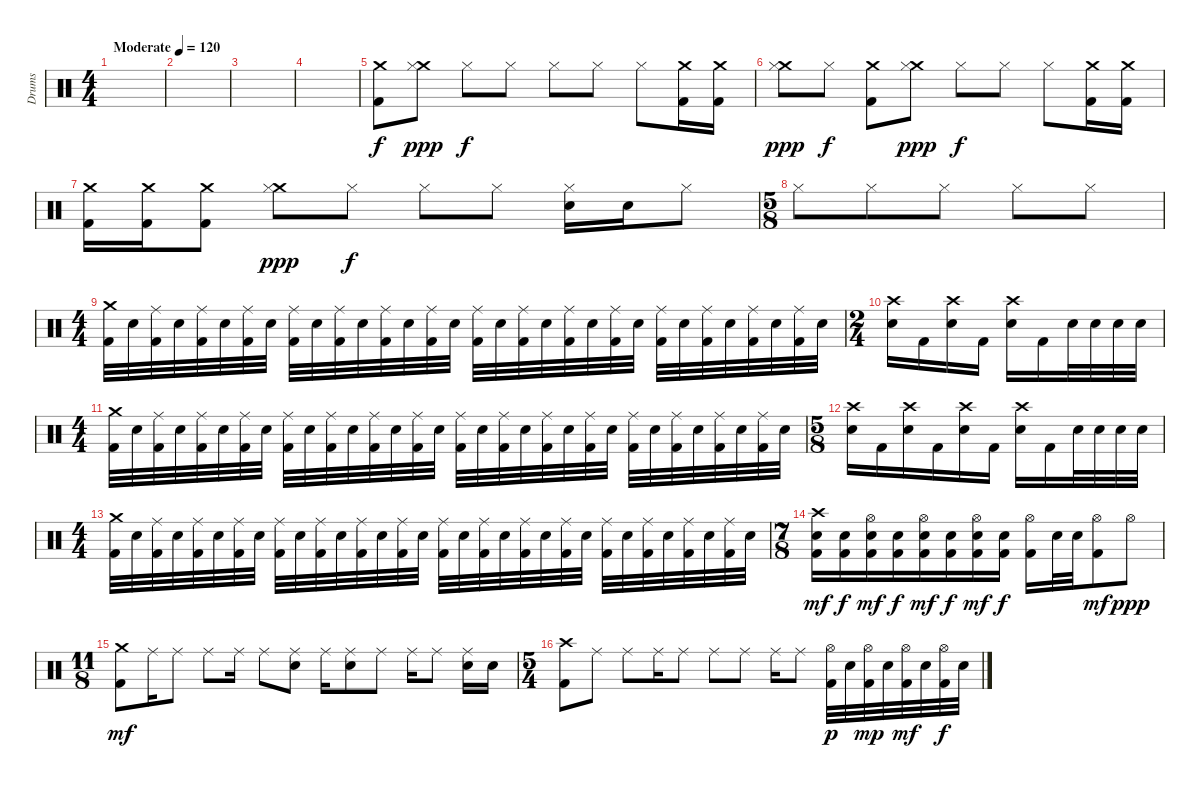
\track ("Drums" "Drums") {instrument percussion}
\staff {score}
\articulation defaults
\ts (4 4)
\tempo (120 "Moderate")
\clef neutral
\ks c
|
|
|
|
("Crash medium (hit)" "Kick (hit) 2").8 ("Crash medium (hit)" "Hi-Hat (closed)").8{dy ppp} "Hi-Hat (closed)".8{dy f} "Hi-Hat (closed)".8 "Hi-Hat (closed)".8 "Hi-Hat (closed)".8 "Hi-Hat (closed)".8 ("Crash medium (hit)" "Kick (hit) 2").16 ("Crash medium (hit)" "Kick (hit) 2").16 |
("Crash medium (hit)" "Hi-Hat (closed)").8{dy ppp} "Hi-Hat (closed)".8{dy f} ("Crash medium (hit)" "Kick (hit) 2").8 ("Crash medium (hit)" "Hi-Hat (closed)").8{dy ppp} "Hi-Hat (closed)".8{dy f} "Hi-Hat (closed)".8 "Hi-Hat (closed)".8 ("Crash medium (hit)" "Kick (hit) 2").16 ("Crash medium (hit)" "Kick (hit) 2").16 |
("Crash medium (hit)" "Kick (hit) 2").16 ("Crash medium (hit)" "Kick (hit) 2").16 ("Crash medium (hit)" "Kick (hit) 2").8 ("Crash medium (hit)" "Hi-Hat (closed)").8{dy ppp} "Hi-Hat (closed)".8{dy f} "Hi-Hat (closed)".8 "Hi-Hat (closed)".8 ("Electric Snare (hit)" "Hi-Hat (closed)").16 "Electric Snare (hit)".16 "Hi-Hat (closed)".8 |
\ts (5 8)
"Hi-Hat (closed)".8 "Hi-Hat (closed)".8 "Hi-Hat (closed)".8 "Hi-Hat (closed)".8 "Hi-Hat (closed)".8 |
\ts (4 4)
("Crash medium (hit)" "Kick (hit) 2").32 "Electric Snare (hit)".32 ("Ride (middle)" "Kick (hit) 2").32 "Electric Snare (hit)".32 ("Ride (middle)" "Kick (hit) 2").32 "Electric Snare (hit)".32 ("Ride (middle)" "Kick (hit) 2").32 "Electric Snare (hit)".32 ("Ride (middle)" "Kick (hit) 2").32 "Electric Snare (hit)".32 ("Ride (middle)" "Kick (hit) 2").32 "Electric Snare (hit)".32 ("Ride (middle)" "Kick (hit) 2").32 "Electric Snare (hit)".32 ("Ride (middle)" "Kick (hit) 2").32 "Electric Snare (hit)".32 ("Ride (middle)" "Kick (hit) 2").32 "Electric Snare (hit)".32 ("Ride (middle)" "Kick (hit) 2").32 "Electric Snare (hit)".32 ("Ride (middle)" "Kick (hit) 2").32 "Electric Snare (hit)".32 ("Ride (middle)" "Kick (hit) 2").32 "Electric Snare (hit)".32 ("Ride (middle)" "Kick (hit) 2").32 "Electric Snare (hit)".32 ("Ride (middle)" "Kick (hit) 2").32 "Electric Snare (hit)".32 ("Ride (middle)" "Kick (hit) 2").32 "Electric Snare (hit)".32 ("Ride (middle)" "Kick (hit) 2").32 "Electric Snare (hit)".32 |
\ts (2 4)
("Crash high (hit)" "Electric Snare (hit)").16 "Kick (hit) 2".16 ("Crash high (hit)" "Electric Snare (hit)").16 "Kick (hit) 2".16 ("Crash high (hit)" "Electric Snare (hit)").16 "Kick (hit) 2".16 "Electric Snare (hit)".32 "Electric Snare (hit)".32 "Electric Snare (hit)".32 "Electric Snare (hit)".32 |
\ts (4 4)
("Crash medium (hit)" "Kick (hit) 2").32 "Electric Snare (hit)".32 ("Ride (middle)" "Kick (hit) 2").32 "Electric Snare (hit)".32 ("Ride (middle)" "Kick (hit) 2").32 "Electric Snare (hit)".32 ("Ride (middle)" "Kick (hit) 2").32 "Electric Snare (hit)".32 ("Ride (middle)" "Kick (hit) 2").32 "Electric Snare (hit)".32 ("Ride (middle)" "Kick (hit) 2").32 "Electric Snare (hit)".32 ("Ride (middle)" "Kick (hit) 2").32 "Electric Snare (hit)".32 ("Ride (middle)" "Kick (hit) 2").32 "Electric Snare (hit)".32 ("Ride (middle)" "Kick (hit) 2").32 "Electric Snare (hit)".32 ("Ride (middle)" "Kick (hit) 2").32 "Electric Snare (hit)".32 ("Ride (middle)" "Kick (hit) 2").32 "Electric Snare (hit)".32 ("Ride (middle)" "Kick (hit) 2").32 "Electric Snare (hit)".32 ("Ride (middle)" "Kick (hit) 2").32 "Electric Snare (hit)".32 ("Ride (middle)" "Kick (hit) 2").32 "Electric Snare (hit)".32 ("Ride (middle)" "Kick (hit) 2").32 "Electric Snare (hit)".32 ("Ride (middle)" "Kick (hit) 2").32 "Electric Snare (hit)".32 |
\ts (5 8)
("Crash high (hit)" "Electric Snare (hit)").16 "Kick (hit) 2".16 ("Crash high (hit)" "Electric Snare (hit)").16 "Kick (hit) 2".16 ("Crash high (hit)" "Electric Snare (hit)").16 "Kick (hit) 2".16 ("Crash high (hit)" "Electric Snare (hit)").16 "Kick (hit) 2".16 "Electric Snare (hit)".32 "Electric Snare (hit)".32 "Electric Snare (hit)".32 "Electric Snare (hit)".32 |
\ts (4 4)
("Crash medium (hit)" "Kick (hit) 2").32 "Electric Snare (hit)".32 ("Ride (middle)" "Kick (hit) 2").32 "Electric Snare (hit)".32 ("Ride (middle)" "Kick (hit) 2").32 "Electric Snare (hit)".32 ("Ride (middle)" "Kick (hit) 2").32 "Electric Snare (hit)".32 ("Ride (middle)" "Kick (hit) 2").32 "Electric Snare (hit)".32 ("Ride (middle)" "Kick (hit) 2").32 "Electric Snare (hit)".32 ("Ride (middle)" "Kick (hit) 2").32 "Electric Snare (hit)".32 ("Ride (middle)" "Kick (hit) 2").32 "Electric Snare (hit)".32 ("Ride (middle)" "Kick (hit) 2").32 "Electric Snare (hit)".32 ("Ride (middle)" "Kick (hit) 2").32 "Electric Snare (hit)".32 ("Ride (middle)" "Kick (hit) 2").32 "Electric Snare (hit)".32 ("Ride (middle)" "Kick (hit) 2").32 "Electric Snare (hit)".32 ("Ride (middle)" "Kick (hit) 2").32 "Electric Snare (hit)".32 ("Ride (middle)" "Kick (hit) 2").32 "Electric Snare (hit)".32 ("Ride (middle)" "Kick (hit) 2").32 "Electric Snare (hit)".32 ("Ride (middle)" "Kick (hit) 2").32 "Electric Snare (hit)".32 |
\ts (7 8)
("Crash high (hit)" "Electric Snare (hit)" "Kick (hit) 2").16{dy mf} ("Electric Snare (hit)" "Kick (hit) 2").16{dy f} ("Hi-Hat (open)" "Electric Snare (hit)" "Kick (hit) 2").16{dy mf} ("Electric Snare (hit)" "Kick (hit) 2").16{dy f} ("Hi-Hat (open)" "Electric Snare (hit)" "Kick (hit) 2").16{dy mf} ("Electric Snare (hit)" "Kick (hit) 2").16{dy f} ("Hi-Hat (open)" "Electric Snare (hit)" "Kick (hit) 2").16{dy mf} ("Electric Snare (hit)" "Kick (hit) 2").16{dy f} ("Hi-Hat (open)" "Kick (hit) 2").16 "Electric Snare (hit)".32 "Electric Snare (hit)".32 ("Hi-Hat (open)" "Kick (hit) 2").8{dy mf} "Hi-Hat (open)".8{dy ppp} |
\ts (11 8)
("Crash medium (hit)" "Kick (hit) 2").8{dy mf} "Ride (middle)".16 "Ride (middle)".8 "Ride (middle)".8 "Ride (middle)".16 "Ride (middle)".8 ("Ride (middle)" "Electric Snare (hit)").8 "Ride (middle)".16 ("Ride (middle)" "Electric Snare (hit)").8 "Ride (middle)".8 "Ride (middle)".16 "Ride (middle)".8 ("Ride (middle)" "Electric Snare (hit)").16 "Electric Snare (hit)".16 |
\ts (5 4)
("Crash high (hit)" "Kick (hit) 2").8 "Ride (middle)".8 "Ride (middle)".8 "Ride (middle)".16 "Ride (middle)".8 "Ride (middle)".8 "Ride (middle)".8 "Ride (middle)".16 "Ride (middle)".8 ("Hi-Hat (open)" "Kick (hit) 2").32{dy p} "Electric Snare (hit)".32 ("Hi-Hat (open)" "Kick (hit) 2").32{dy mp} "Electric Snare (hit)".32 ("Hi-Hat (open)" "Kick (hit) 2").32{dy mf} "Electric Snare (hit)".32 ("Hi-Hat (open)" "Kick (hit) 2").32{dy f} "Electric Snare (hit)".32
